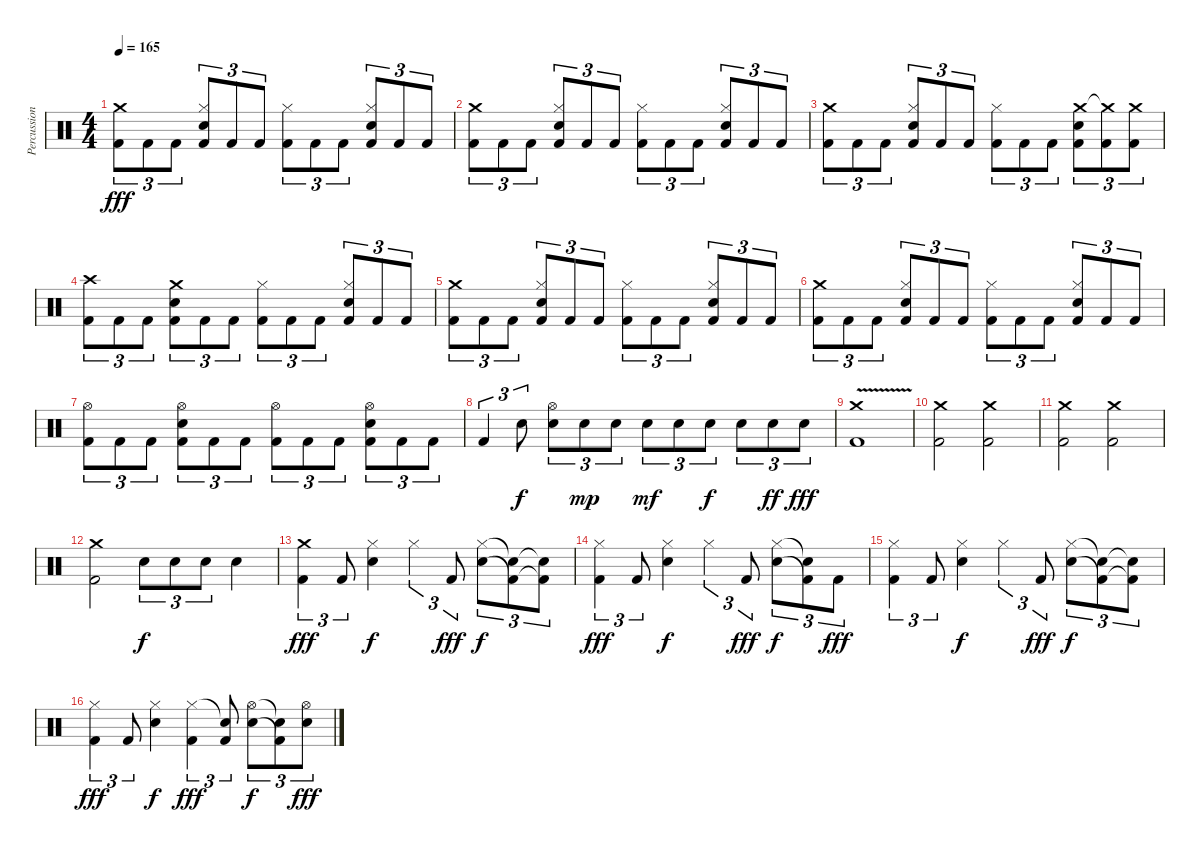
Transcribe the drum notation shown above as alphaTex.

\track ("Percussion" "Percussion") {instrument percussion}
\staff {score}
\articulation defaults
\ts (4 4)
\tempo 165
\clef neutral
\ks c
("Crash medium (hit)" "Kick (hit) 2").8{tu (3 2) dy fff} "Kick (hit) 2".8{tu (3 2)} "Kick (hit) 2".8{tu (3 2)} ("Hi-Hat (closed)" "Electric Snare (hit)" "Kick (hit) 2").8{tu (3 2)} "Kick (hit) 2".8{tu (3 2)} "Kick (hit) 2".8{tu (3 2)} ("Hi-Hat (closed)" "Kick (hit) 2").8{tu (3 2)} "Kick (hit) 2".8{tu (3 2)} "Kick (hit) 2".8{tu (3 2)} ("Hi-Hat (closed)" "Electric Snare (hit)" "Kick (hit) 2").8{tu (3 2)} "Kick (hit) 2".8{tu (3 2)} "Kick (hit) 2".8{tu (3 2)} |
("Crash medium (hit)" "Kick (hit) 2").8{tu (3 2)} "Kick (hit) 2".8{tu (3 2)} "Kick (hit) 2".8{tu (3 2)} ("Hi-Hat (closed)" "Electric Snare (hit)" "Kick (hit) 2").8{tu (3 2)} "Kick (hit) 2".8{tu (3 2)} "Kick (hit) 2".8{tu (3 2)} ("Hi-Hat (closed)" "Kick (hit) 2").8{tu (3 2)} "Kick (hit) 2".8{tu (3 2)} "Kick (hit) 2".8{tu (3 2)} ("Hi-Hat (closed)" "Electric Snare (hit)" "Kick (hit) 2").8{tu (3 2)} "Kick (hit) 2".8{tu (3 2)} "Kick (hit) 2".8{tu (3 2)} |
("Crash medium (hit)" "Kick (hit) 2").8{tu (3 2)} "Kick (hit) 2".8{tu (3 2)} "Kick (hit) 2".8{tu (3 2)} ("Hi-Hat (closed)" "Electric Snare (hit)" "Kick (hit) 2").8{tu (3 2)} "Kick (hit) 2".8{tu (3 2)} "Kick (hit) 2".8{tu (3 2)} ("Hi-Hat (closed)" "Kick (hit) 2").8{tu (3 2)} "Kick (hit) 2".8{tu (3 2)} "Kick (hit) 2".8{tu (3 2)} ("Crash medium (hit)" "Electric Snare (hit)" "Kick (hit) 2").8{tu (3 2)} ("Crash medium (hit)"{t} "Kick (hit) 2").8{tu (3 2)} ("Crash medium (hit)" "Kick (hit) 2").8{tu (3 2)} |
("Crash high (hit)" "Kick (hit) 2").8{tu (3 2)} "Kick (hit) 2".8{tu (3 2)} "Kick (hit) 2".8{tu (3 2)} ("Crash medium (hit)" "Electric Snare (hit)" "Kick (hit) 2").8{tu (3 2)} "Kick (hit) 2".8{tu (3 2)} "Kick (hit) 2".8{tu (3 2)} ("Hi-Hat (closed)" "Kick (hit) 2").8{tu (3 2)} "Kick (hit) 2".8{tu (3 2)} "Kick (hit) 2".8{tu (3 2)} ("Hi-Hat (closed)" "Electric Snare (hit)" "Kick (hit) 2").8{tu (3 2)} "Kick (hit) 2".8{tu (3 2)} "Kick (hit) 2".8{tu (3 2)} |
("Crash medium (hit)" "Kick (hit) 2").8{tu (3 2)} "Kick (hit) 2".8{tu (3 2)} "Kick (hit) 2".8{tu (3 2)} ("Hi-Hat (closed)" "Electric Snare (hit)" "Kick (hit) 2").8{tu (3 2)} "Kick (hit) 2".8{tu (3 2)} "Kick (hit) 2".8{tu (3 2)} ("Hi-Hat (closed)" "Kick (hit) 2").8{tu (3 2)} "Kick (hit) 2".8{tu (3 2)} "Kick (hit) 2".8{tu (3 2)} ("Hi-Hat (closed)" "Electric Snare (hit)" "Kick (hit) 2").8{tu (3 2)} "Kick (hit) 2".8{tu (3 2)} "Kick (hit) 2".8{tu (3 2)} |
("Crash medium (hit)" "Kick (hit) 2").8{tu (3 2)} "Kick (hit) 2".8{tu (3 2)} "Kick (hit) 2".8{tu (3 2)} ("Hi-Hat (closed)" "Electric Snare (hit)" "Kick (hit) 2").8{tu (3 2)} "Kick (hit) 2".8{tu (3 2)} "Kick (hit) 2".8{tu (3 2)} ("Hi-Hat (closed)" "Kick (hit) 2").8{tu (3 2)} "Kick (hit) 2".8{tu (3 2)} "Kick (hit) 2".8{tu (3 2)} ("Hi-Hat (closed)" "Electric Snare (hit)" "Kick (hit) 2").8{tu (3 2)} "Kick (hit) 2".8{tu (3 2)} "Kick (hit) 2".8{tu (3 2)} |
("Hi-Hat (open)" "Kick (hit) 2").8{tu (3 2)} "Kick (hit) 2".8{tu (3 2)} "Kick (hit) 2".8{tu (3 2)} ("Hi-Hat (open)" "Electric Snare (hit)" "Kick (hit) 2").8{tu (3 2)} "Kick (hit) 2".8{tu (3 2)} "Kick (hit) 2".8{tu (3 2)} ("Hi-Hat (open)" "Kick (hit) 2").8{tu (3 2)} "Kick (hit) 2".8{tu (3 2)} "Kick (hit) 2".8{tu (3 2)} ("Hi-Hat (open)" "Electric Snare (hit)" "Kick (hit) 2").8{tu (3 2)} "Kick (hit) 2".8{tu (3 2)} "Kick (hit) 2".8{tu (3 2)} |
"Kick (hit) 2".4{tu (3 2)} "Electric Snare (hit)".8{tu (3 2) dy f} ("Hi-Hat (open)" "Electric Snare (hit)").8{tu (3 2)} "Electric Snare (hit)".8{tu (3 2) dy mp} "Electric Snare (hit)".8{tu (3 2)} "Electric Snare (hit)".8{tu (3 2) dy mf} "Electric Snare (hit)".8{tu (3 2)} "Electric Snare (hit)".8{tu (3 2) dy f} "Electric Snare (hit)".8{tu (3 2)} "Electric Snare (hit)".8{tu (3 2) dy ff} "Electric Snare (hit)".8{tu (3 2) dy fff} |
("Crash medium (hit)" "Kick (hit) 2"{v}).1 |
("Crash medium (hit)" "Kick (hit) 2").2 ("Crash medium (hit)" "Kick (hit) 2").2 |
("Crash medium (hit)" "Kick (hit) 2").2 ("Crash medium (hit)" "Kick (hit) 2").2 |
("Crash medium (hit)" "Kick (hit) 2").2 "Electric Snare (hit)".8{tu (3 2) dy f} "Electric Snare (hit)".8{tu (3 2)} "Electric Snare (hit)".8{tu (3 2)} "Electric Snare (hit)".4 |
("Crash medium (hit)" "Kick (hit) 2").4{tu (3 2) dy fff} "Kick (hit) 2".8{tu (3 2)} ("Hi-Hat (closed)" "Electric Snare (hit)").4{dy f} "Hi-Hat (closed)".4{tu (3 2)} "Kick (hit) 2".8{tu (3 2) dy fff} ("Hi-Hat (closed)" "Electric Snare (hit)").8{tu (3 2) dy f} ("Snare (hit)"{t} "Kick (hit) 2"{t}).8{tu (3 2)} ("Snare (hit)"{t} "Kick (hit) 2"{t}).8{tu (3 2)} |
("Hi-Hat (closed)" "Kick (hit) 2").4{tu (3 2) dy fff} "Kick (hit) 2".8{tu (3 2)} ("Hi-Hat (closed)" "Electric Snare (hit)").4{dy f} "Hi-Hat (closed)".4{tu (3 2)} "Kick (hit) 2".8{tu (3 2) dy fff} ("Hi-Hat (closed)" "Electric Snare (hit)").8{tu (3 2) dy f} ("Snare (hit)"{t} "Kick (hit) 2"{t}).8{tu (3 2)} "Kick (hit) 2".8{tu (3 2) dy fff} |
("Hi-Hat (closed)" "Kick (hit) 2").4{tu (3 2)} "Kick (hit) 2".8{tu (3 2)} ("Hi-Hat (closed)" "Electric Snare (hit)").4{dy f} "Hi-Hat (closed)".4{tu (3 2)} "Kick (hit) 2".8{tu (3 2) dy fff} ("Hi-Hat (closed)" "Electric Snare (hit)").8{tu (3 2) dy f} ("Snare (hit)"{t} "Kick (hit) 2"{t}).8{tu (3 2)} ("Snare (hit)"{t} "Kick (hit) 2"{t}).8{tu (3 2)} |
("Hi-Hat (closed)" "Kick (hit) 2").4{tu (3 2) dy fff} "Kick (hit) 2".8{tu (3 2)} ("Hi-Hat (closed)" "Electric Snare (hit)").4{dy f} ("Hi-Hat (closed)" "Kick (hit) 2").4{tu (3 2) dy fff} ("Snare (hit)"{t} "Kick (hit) 2").8{tu (3 2)} ("Hi-Hat (open)" "Electric Snare (hit)").8{tu (3 2) dy f} ("Snare (hit)"{t} "Kick (hit) 2"{t}).8{tu (3 2)} ("Hi-Hat (open)" "Electric Snare (hit)").8{tu (3 2) dy fff}
